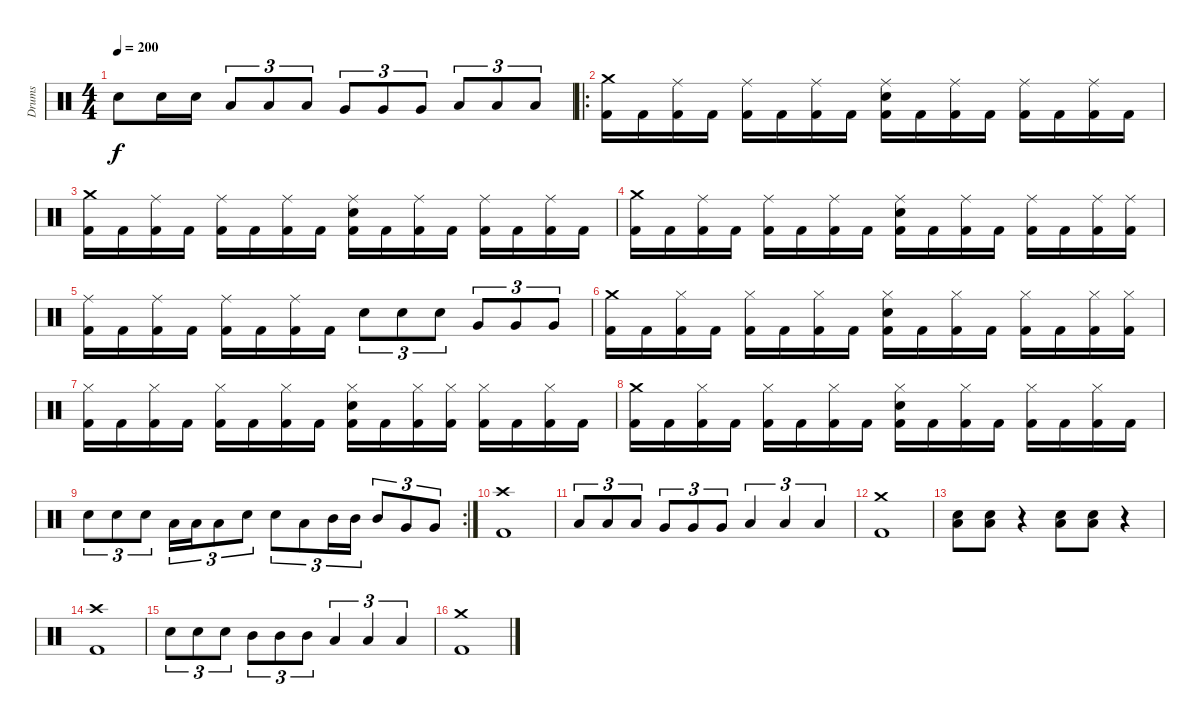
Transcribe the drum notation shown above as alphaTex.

\track ("Drums" "Drums") {instrument percussion}
\staff {score}
\articulation defaults
\ts (4 4)
\tempo 200
\clef neutral
\ks c "Electric Snare (hit)".8{dy f} "Electric Snare (hit)".16 "Electric Snare (hit)".16 "Low Floor Tom (hit)".8{tu (3 2)} "Low Floor Tom (hit)".8{tu (3 2)} "Low Floor Tom (hit)".8{tu (3 2)} "Very Low Tom (hit)".8{tu (3 2)} "Very Low Tom (hit)".8{tu (3 2)} "Very Low Tom (hit)".8{tu (3 2)} "Low Tom (hit)".8{tu (3 2)} "Low Tom (hit)".8{tu (3 2)} "Low Tom (hit)".8{tu (3 2)}
|
\ro
("Kick (hit) 2" "Crash medium (hit)").16 "Kick (hit) 2".16 ("Kick (hit) 2" "Ride (middle)").16 "Kick (hit) 2".16 ("Kick (hit) 2" "Ride (middle)").16 "Kick (hit) 2".16 ("Kick (hit) 2" "Ride (middle)").16 "Kick (hit) 2".16 ("Kick (hit) 2" "Electric Snare (hit)" "Ride (middle)").16 "Kick (hit) 2".16 ("Kick (hit) 2" "Ride (middle)").16 "Kick (hit) 2".16 ("Kick (hit) 2" "Ride (middle)").16 "Kick (hit) 2".16 ("Kick (hit) 2" "Ride (middle)").16 "Kick (hit) 2".16 |
("Kick (hit) 2" "Crash medium (hit)").16 "Kick (hit) 2".16 ("Kick (hit) 2" "Ride (middle)").16 "Kick (hit) 2".16 ("Kick (hit) 2" "Ride (middle)").16 "Kick (hit) 2".16 ("Kick (hit) 2" "Ride (middle)").16 "Kick (hit) 2".16 ("Kick (hit) 2" "Electric Snare (hit)" "Ride (middle)").16 "Kick (hit) 2".16 ("Kick (hit) 2" "Ride (middle)").16 "Kick (hit) 2".16 ("Kick (hit) 2" "Ride (middle)").16 "Kick (hit) 2".16 ("Kick (hit) 2" "Ride (middle)").16 "Kick (hit) 2".16 |
("Kick (hit) 2" "Crash medium (hit)").16 "Kick (hit) 2".16 ("Kick (hit) 2" "Ride (middle)").16 "Kick (hit) 2".16 ("Kick (hit) 2" "Ride (middle)").16 "Kick (hit) 2".16 ("Kick (hit) 2" "Ride (middle)").16 "Kick (hit) 2".16 ("Kick (hit) 2" "Electric Snare (hit)" "Ride (middle)").16 "Kick (hit) 2".16 ("Kick (hit) 2" "Ride (middle)").16 "Kick (hit) 2".16 ("Kick (hit) 2" "Ride (middle)").16 "Kick (hit) 2".16 ("Kick (hit) 2" "Ride (middle)").16 ("Kick (hit) 2" "Ride (middle)").16 |
("Kick (hit) 2" "Ride (middle)").16 "Kick (hit) 2".16 ("Kick (hit) 2" "Ride (middle)").16 "Kick (hit) 2".16 ("Kick (hit) 2" "Ride (middle)").16 "Kick (hit) 2".16 ("Kick (hit) 2" "Ride (middle)").16 "Kick (hit) 2".16 "Electric Snare (hit)".8{tu (3 2)} "Electric Snare (hit)".8{tu (3 2)} "Electric Snare (hit)".8{tu (3 2)} "Very Low Tom (hit)".8{tu (3 2)} "Very Low Tom (hit)".8{tu (3 2)} "Very Low Tom (hit)".8{tu (3 2)} |
("Kick (hit) 2" "Crash medium (hit)").16 "Kick (hit) 2".16 ("Kick (hit) 2" "Hi-Hat (closed)").16 "Kick (hit) 2".16 ("Kick (hit) 2" "Hi-Hat (closed)").16 "Kick (hit) 2".16 ("Kick (hit) 2" "Hi-Hat (closed)").16 "Kick (hit) 2".16 ("Kick (hit) 2" "Electric Snare (hit)" "Hi-Hat (closed)").16 "Kick (hit) 2".16 ("Kick (hit) 2" "Hi-Hat (closed)").16 "Kick (hit) 2".16 ("Kick (hit) 2" "Hi-Hat (closed)").16 "Kick (hit) 2".16 ("Kick (hit) 2" "Hi-Hat (closed)").16 ("Kick (hit) 2" "Hi-Hat (closed)").16 |
("Kick (hit) 2" "Hi-Hat (closed)").16 "Kick (hit) 2".16 ("Kick (hit) 2" "Hi-Hat (closed)").16 "Kick (hit) 2".16 ("Kick (hit) 2" "Hi-Hat (closed)").16 "Kick (hit) 2".16 ("Kick (hit) 2" "Hi-Hat (closed)").16 "Kick (hit) 2".16 ("Kick (hit) 2" "Electric Snare (hit)" "Hi-Hat (closed)").16 "Kick (hit) 2".16 ("Kick (hit) 2" "Hi-Hat (closed)").16 ("Kick (hit) 2" "Hi-Hat (closed)").16 ("Kick (hit) 2" "Hi-Hat (closed)").16 "Kick (hit) 2".16 ("Kick (hit) 2" "Hi-Hat (closed)").16 "Kick (hit) 2".16 |
("Kick (hit) 2" "Crash medium (hit)").16 "Kick (hit) 2".16 ("Kick (hit) 2" "Hi-Hat (closed)").16 "Kick (hit) 2".16 ("Kick (hit) 2" "Hi-Hat (closed)").16 "Kick (hit) 2".16 ("Kick (hit) 2" "Hi-Hat (closed)").16 "Kick (hit) 2".16 ("Kick (hit) 2" "Electric Snare (hit)" "Hi-Hat (closed)").16 "Kick (hit) 2".16 ("Kick (hit) 2" "Hi-Hat (closed)").16 "Kick (hit) 2".16 ("Kick (hit) 2" "Hi-Hat (closed)").16 "Kick (hit) 2".16 ("Kick (hit) 2" "Hi-Hat (closed)").16 "Kick (hit) 2".16 |
\rc 2 "Electric Snare (hit)".8{tu (3 2)} "Electric Snare (hit)".8{tu (3 2)} "Electric Snare (hit)".8{tu (3 2)} "Low Tom (hit)".16{tu (3 2)} "Low Tom (hit)".16{tu (3 2)} "Low Tom (hit)".8{tu (3 2)} "Electric Snare (hit)".8{tu (3 2)} "Electric Snare (hit)".8{tu (3 2)} "Low Tom (hit)".8{tu (3 2)} "Mid Tom (hit)".16{tu (3 2)} "Mid Tom (hit)".16{tu (3 2)} "Mid Tom (hit)".8{tu (3 2)} "Very Low Tom (hit)".8{tu (3 2)} "Very Low Tom (hit)".8{tu (3 2)}
|
("Kick (hit) 2" "Crash high (hit)").1 |
"Low Floor Tom (hit)".8{tu (3 2)} "Low Floor Tom (hit)".8{tu (3 2)} "Low Floor Tom (hit)".8{tu (3 2)} "Very Low Tom (hit)".8{tu (3 2)} "Very Low Tom (hit)".8{tu (3 2)} "Very Low Tom (hit)".8{tu (3 2)} "Low Tom (hit)".4{tu (3 2)} "Low Tom (hit)".4{tu (3 2)} "Low Tom (hit)".4{tu (3 2)} |
("Kick (hit) 2" "Crash medium (hit)").1 |
("Electric Snare (hit)" "Low Tom (hit)").8 ("Electric Snare (hit)" "Low Tom (hit)").8 r.4 ("Electric Snare (hit)" "Low Tom (hit)").8 ("Electric Snare (hit)" "Low Tom (hit)").8 r.4 |
("Kick (hit) 2" "Crash high (hit)").1 |
"Electric Snare (hit)".8{tu (3 2)} "Electric Snare (hit)".8{tu (3 2)} "Electric Snare (hit)".8{tu (3 2)} "Mid Tom (hit)".8{tu (3 2)} "Mid Tom (hit)".8{tu (3 2)} "Mid Tom (hit)".8{tu (3 2)} "Low Tom (hit)".4{tu (3 2)} "Low Tom (hit)".4{tu (3 2)} "Low Tom (hit)".4{tu (3 2)} |
("Kick (hit) 2" "Crash medium (hit)").1
